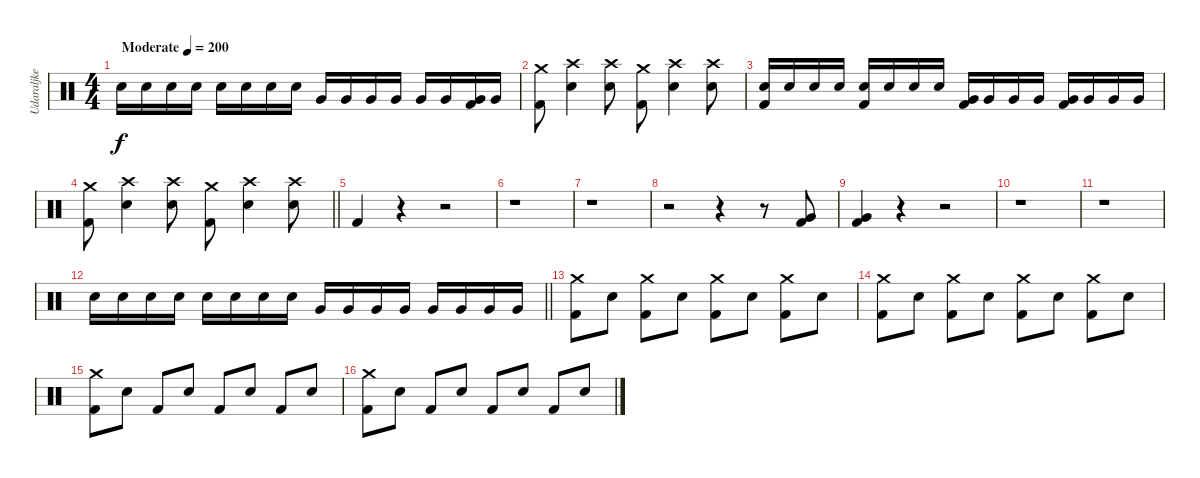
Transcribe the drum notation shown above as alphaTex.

\track ("Udaraljke" "Udaraljke") {instrument percussion}
\staff {score}
\articulation defaults
\ts (4 4)
\tempo (200 "Moderate")
\clef neutral
\ks c "Electric Snare (hit)".16{dy f} "Electric Snare (hit)".16 "Electric Snare (hit)".16 "Electric Snare (hit)".16 "Electric Snare (hit)".16 "Electric Snare (hit)".16 "Electric Snare (hit)".16 "Electric Snare (hit)".16 "Very Low Tom (hit)".16 "Very Low Tom (hit)".16 "Very Low Tom (hit)".16 "Very Low Tom (hit)".16 "Very Low Tom (hit)".16 "Very Low Tom (hit)".16
("Very Low Tom (hit)" "Kick (hit) 2").16 "Very Low Tom (hit)".16 |
("Crash medium (hit)" "Kick (hit) 2").8 ("Crash high (hit)" "Electric Snare (hit)").4 ("Crash high (hit)" "Electric Snare (hit)").8 ("Crash medium (hit)" "Kick (hit) 2").8 ("Crash high (hit)" "Electric Snare (hit)").4 ("Crash high (hit)" "Electric Snare (hit)").8 |
("Electric Snare (hit)" "Kick (hit) 2").16 "Electric Snare (hit)".16 "Electric Snare (hit)".16 "Electric Snare (hit)".16 ("Electric Snare (hit)" "Kick (hit) 2").16 "Electric Snare (hit)".16 "Electric Snare (hit)".16 "Electric Snare (hit)".16 ("Very Low Tom (hit)" "Kick (hit) 2").16 "Very Low Tom (hit)".16 "Very Low Tom (hit)".16 "Very Low Tom (hit)".16 ("Very Low Tom (hit)" "Kick (hit) 2").16 "Very Low Tom (hit)".16 "Very Low Tom (hit)".16 "Very Low Tom (hit)".16 |
\barLineRight lightlight
("Crash medium (hit)" "Kick (hit) 2").8 ("Crash high (hit)" "Electric Snare (hit)").4 ("Crash high (hit)" "Electric Snare (hit)").8 ("Crash medium (hit)" "Kick (hit) 2").8 ("Crash high (hit)" "Electric Snare (hit)").4 ("Crash high (hit)" "Electric Snare (hit)").8 |
"Kick (hit) 2".4 r.4 r.2 |
r.1 |
r.1 |
r.2 r.4 r.8 ("Very Low Tom (hit)" "Kick (hit) 2").8 |
("Very Low Tom (hit)" "Kick (hit) 2").4 r.4 r.2 |
r.1 |
r.1 |
\barLineRight lightlight "Electric Snare (hit)".16 "Electric Snare (hit)".16 "Electric Snare (hit)".16 "Electric Snare (hit)".16 "Electric Snare (hit)".16 "Electric Snare (hit)".16 "Electric Snare (hit)".16 "Electric Snare (hit)".16 "Very Low Tom (hit)".16 "Very Low Tom (hit)".16 "Very Low Tom (hit)".16 "Very Low Tom (hit)".16 "Very Low Tom (hit)".16 "Very Low Tom (hit)".16 "Very Low Tom (hit)".16 "Very Low Tom (hit)".16
|
("Crash medium (hit)" "Kick (hit) 2").8 "Electric Snare (hit)".8 ("Crash medium (hit)" "Kick (hit) 2").8 "Electric Snare (hit)".8 ("Crash medium (hit)" "Kick (hit) 2").8 "Electric Snare (hit)".8 ("Crash medium (hit)" "Kick (hit) 2").8 "Electric Snare (hit)".8 |
("Crash medium (hit)" "Kick (hit) 2").8 "Electric Snare (hit)".8 ("Crash medium (hit)" "Kick (hit) 2").8 "Electric Snare (hit)".8 ("Crash medium (hit)" "Kick (hit) 2").8 "Electric Snare (hit)".8 ("Crash medium (hit)" "Kick (hit) 2").8 "Electric Snare (hit)".8 |
("Crash medium (hit)" "Kick (hit) 2").8 "Electric Snare (hit)".8 "Kick (hit) 2".8 "Electric Snare (hit)".8 "Kick (hit) 2".8 "Electric Snare (hit)".8 "Kick (hit) 2".8 "Electric Snare (hit)".8 |
("Crash medium (hit)" "Kick (hit) 2").8 "Electric Snare (hit)".8 "Kick (hit) 2".8 "Electric Snare (hit)".8 "Kick (hit) 2".8 "Electric Snare (hit)".8 "Kick (hit) 2".8 "Electric Snare (hit)".8
